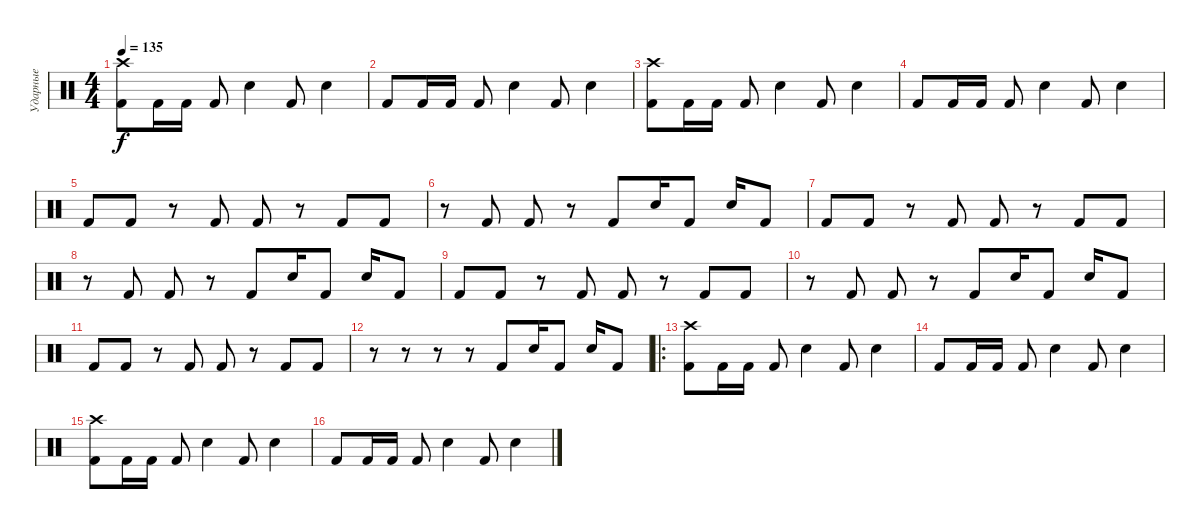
\track ("Ударные" "Ударные") {instrument percussion}
\staff {score}
\articulation defaults
\ts (4 4)
\tempo 135
\clef neutral
\ks c
("Crash high (hit)" "Kick (hit) 2").8{dy f} "Kick (hit) 2".16 "Kick (hit) 2".16 "Kick (hit) 2".8 "Electric Snare (hit)".4 "Kick (hit) 2".8 "Electric Snare (hit)".4 |
"Kick (hit) 2".8 "Kick (hit) 2".16 "Kick (hit) 2".16 "Kick (hit) 2".8 "Electric Snare (hit)".4 "Kick (hit) 2".8 "Electric Snare (hit)".4 |
("Crash high (hit)" "Kick (hit) 2").8 "Kick (hit) 2".16 "Kick (hit) 2".16 "Kick (hit) 2".8 "Electric Snare (hit)".4 "Kick (hit) 2".8 "Electric Snare (hit)".4 |
"Kick (hit) 2".8 "Kick (hit) 2".16 "Kick (hit) 2".16 "Kick (hit) 2".8 "Electric Snare (hit)".4 "Kick (hit) 2".8 "Electric Snare (hit)".4 |
"Kick (hit) 2".8 "Kick (hit) 2".8 r.8 "Kick (hit) 2".8 "Kick (hit) 2".8 r.8 "Kick (hit) 2".8 "Kick (hit) 2".8 |
r.8 "Kick (hit) 2".8 "Kick (hit) 2".8 r.8 "Kick (hit) 2".8 "Snare (hit) 2".16 "Kick (hit) 2".8 "Electric Snare (hit)".16 "Kick (hit) 2".8 |
"Kick (hit) 2".8 "Kick (hit) 2".8 r.8 "Kick (hit) 2".8 "Kick (hit) 2".8 r.8 "Kick (hit) 2".8 "Kick (hit) 2".8 |
r.8 "Kick (hit) 2".8 "Kick (hit) 2".8 r.8 "Kick (hit) 2".8 "Snare (hit) 2".16 "Kick (hit) 2".8 "Electric Snare (hit)".16 "Kick (hit) 2".8 |
"Kick (hit) 2".8 "Kick (hit) 2".8 r.8 "Kick (hit) 2".8 "Kick (hit) 2".8 r.8 "Kick (hit) 2".8 "Kick (hit) 2".8 |
r.8 "Kick (hit) 2".8 "Kick (hit) 2".8 r.8 "Kick (hit) 2".8 "Snare (hit) 2".16 "Kick (hit) 2".8 "Electric Snare (hit)".16 "Kick (hit) 2".8 |
"Kick (hit) 2".8 "Kick (hit) 2".8 r.8 "Kick (hit) 2".8 "Kick (hit) 2".8 r.8 "Kick (hit) 2".8 "Kick (hit) 2".8 |
r.8 r.8 r.8 r.8 "Kick (hit) 2".8 "Snare (hit) 2".16 "Kick (hit) 2".8 "Electric Snare (hit)".16 "Kick (hit) 2".8 |
\ro
("Crash high (hit)" "Kick (hit) 2").8 "Kick (hit) 2".16 "Kick (hit) 2".16 "Kick (hit) 2".8 "Electric Snare (hit)".4 "Kick (hit) 2".8 "Electric Snare (hit)".4 |
"Kick (hit) 2".8 "Kick (hit) 2".16 "Kick (hit) 2".16 "Kick (hit) 2".8 "Electric Snare (hit)".4 "Kick (hit) 2".8 "Electric Snare (hit)".4 |
("Crash high (hit)" "Kick (hit) 2").8 "Kick (hit) 2".16 "Kick (hit) 2".16 "Kick (hit) 2".8 "Electric Snare (hit)".4 "Kick (hit) 2".8 "Electric Snare (hit)".4 |
"Kick (hit) 2".8 "Kick (hit) 2".16 "Kick (hit) 2".16 "Kick (hit) 2".8 "Electric Snare (hit)".4 "Kick (hit) 2".8 "Electric Snare (hit)".4
